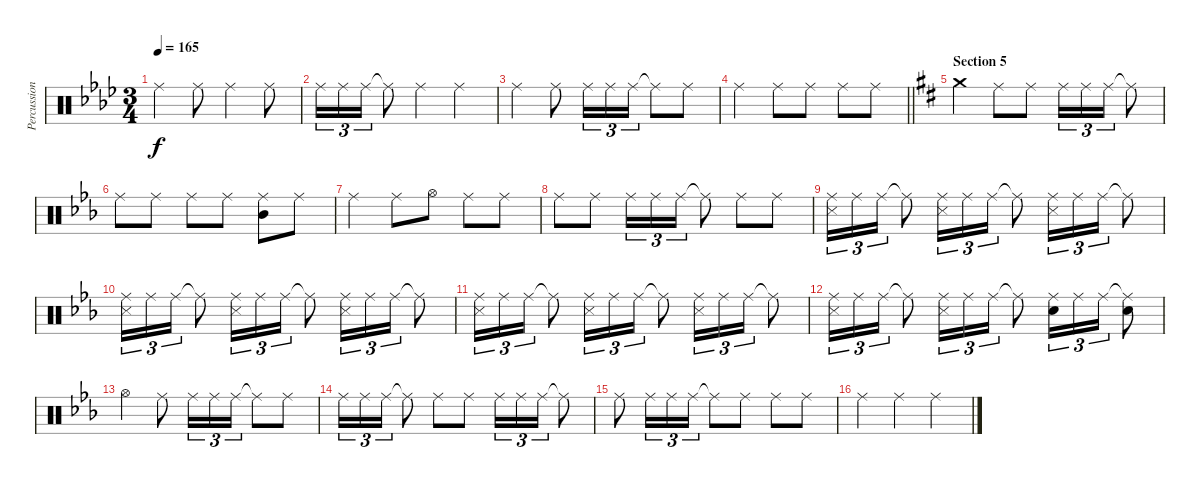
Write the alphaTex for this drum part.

\track ("Percussion" "Percussion") {instrument percussion}
\staff {score}
\articulation defaults
\ts (3 4)
\tempo 165
\clef neutral
\ks ab "Ride (middle)".4{dy f} "Ride (middle)".8 "Ride (middle)".4 "Ride (middle)".8
|
"Ride (middle)".16{tu (3 2)} "Ride (middle)".16{tu (3 2)} "Ride (middle)".16{tu (3 2)} "Ride (middle)"{t}.8 "Ride (middle)".4 "Ride (middle)".4 |
"Ride (middle)".4 "Ride (middle)".8 "Ride (middle)".16{tu (3 2)} "Ride (middle)".16{tu (3 2)} "Ride (middle)".16{tu (3 2)} "Ride (middle)"{t}.8 "Ride (middle)".8 |
\barLineRight lightlight "Ride (middle)".4 "Ride (middle)".8 "Ride (middle)".8 "Ride (middle)".8 "Ride (middle)".8
|
\section ("" "Section 5")
\ks d "Crash medium (hit)".4 "Ride (middle)".8 "Ride (middle)".8 "Ride (middle)".16{tu (3 2)} "Ride (middle)".16{tu (3 2)} "Ride (middle)".16{tu (3 2)} "Ride (middle)"{t}.8
|
\ks eb "Ride (middle)".8 "Ride (middle)".8 "Ride (middle)".8 "Ride (middle)".8
("Ride (middle)" "Mid Tom (hit)").8 "Ride (middle)".8 |
"Ride (middle)".4 "Ride (middle)".8 "Hi-Hat (open)".8 "Ride (middle)".8 "Ride (middle)".8 |
"Ride (middle)".8 "Ride (middle)".8 "Ride (middle)".16{tu (3 2)} "Ride (middle)".16{tu (3 2)} "Ride (middle)".16{tu (3 2)} "Ride (middle)"{t}.8 "Ride (middle)".8 "Ride (middle)".8 |
("Ride (middle)" "Snare (side stick) 3").16{tu (3 2)} "Ride (middle)".16{tu (3 2)} "Ride (middle)".16{tu (3 2)} "Ride (middle)"{t}.8 ("Ride (middle)" "Snare (side stick) 3").16{tu (3 2)} "Ride (middle)".16{tu (3 2)} "Ride (middle)".16{tu (3 2)} "Ride (middle)"{t}.8 ("Ride (middle)" "Snare (side stick) 3").16{tu (3 2)} "Ride (middle)".16{tu (3 2)} "Ride (middle)".16{tu (3 2)} "Ride (middle)"{t}.8 |
("Ride (middle)" "Snare (side stick) 3").16{tu (3 2)} "Ride (middle)".16{tu (3 2)} "Ride (middle)".16{tu (3 2)} "Ride (middle)"{t}.8 ("Ride (middle)" "Snare (side stick) 3").16{tu (3 2)} "Ride (middle)".16{tu (3 2)} "Ride (middle)".16{tu (3 2)} "Ride (middle)"{t}.8 ("Ride (middle)" "Snare (side stick) 3").16{tu (3 2)} "Ride (middle)".16{tu (3 2)} "Ride (middle)".16{tu (3 2)} "Ride (middle)"{t}.8 |
("Ride (middle)" "Snare (side stick) 3").16{tu (3 2)} "Ride (middle)".16{tu (3 2)} "Ride (middle)".16{tu (3 2)} "Ride (middle)"{t}.8 ("Ride (middle)" "Snare (side stick) 3").16{tu (3 2)} "Ride (middle)".16{tu (3 2)} "Ride (middle)".16{tu (3 2)} "Ride (middle)"{t}.8 ("Ride (middle)" "Snare (side stick) 3").16{tu (3 2)} "Ride (middle)".16{tu (3 2)} "Ride (middle)".16{tu (3 2)} "Ride (middle)"{t}.8 |
("Ride (middle)" "Snare (side stick) 3").16{tu (3 2)} "Ride (middle)".16{tu (3 2)} "Ride (middle)".16{tu (3 2)} "Ride (middle)"{t}.8 ("Ride (middle)" "Snare (side stick) 3").16{tu (3 2)} "Ride (middle)".16{tu (3 2)} "Ride (middle)".16{tu (3 2)} "Ride (middle)"{t}.8 ("Ride (middle)" "Snare (hit) 2").16{tu (3 2)} "Ride (middle)".16{tu (3 2)} "Ride (middle)".16{tu (3 2)} ("Ride (middle)"{t} "Snare (hit) 2").8 |
"Hi-Hat (open)".4 "Ride (middle)".8 "Ride (middle)".16{tu (3 2)} "Ride (middle)".16{tu (3 2)} "Ride (middle)".16{tu (3 2)} "Ride (middle)"{t}.8 "Ride (middle)".8 |
"Ride (middle)".16{tu (3 2)} "Ride (middle)".16{tu (3 2)} "Ride (middle)".16{tu (3 2)} "Ride (middle)"{t}.8 "Ride (middle)".8 "Ride (middle)".8 "Ride (middle)".16{tu (3 2)} "Ride (middle)".16{tu (3 2)} "Ride (middle)".16{tu (3 2)} "Ride (middle)"{t}.8 |
"Ride (middle)".8 "Ride (middle)".16{tu (3 2)} "Ride (middle)".16{tu (3 2)} "Ride (middle)".16{tu (3 2)} "Ride (middle)"{t}.8 "Ride (middle)".8 "Ride (middle)".8 "Ride (middle)".8 |
"Ride (middle)".4 "Ride (middle)".4 "Ride (middle)".4
